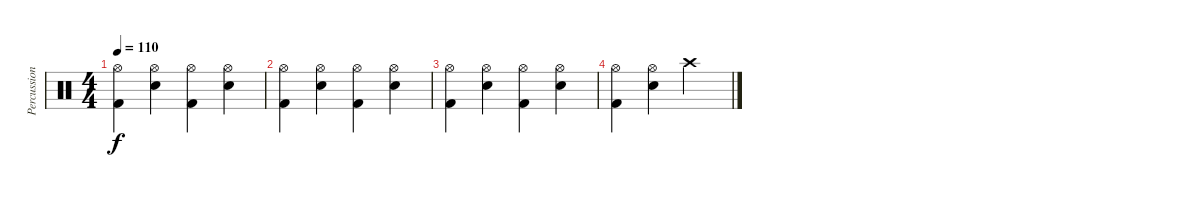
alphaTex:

\track ("Percussion" "Percussion") {instrument percussion}
\staff {score}
\articulation defaults
\ts (4 4)
\tempo 110
\clef neutral
\ks c
("Hi-Hat (open)" "Kick (hit) 2").4{dy f} ("Hi-Hat (open)" "Electric Snare (hit)").4 ("Hi-Hat (open)" "Kick (hit) 2").4 ("Hi-Hat (open)" "Electric Snare (hit)").4 |
("Hi-Hat (open)" "Kick (hit) 2").4 ("Hi-Hat (open)" "Electric Snare (hit)").4 ("Hi-Hat (open)" "Kick (hit) 2").4 ("Hi-Hat (open)" "Electric Snare (hit)").4 |
("Hi-Hat (open)" "Kick (hit) 2").4 ("Hi-Hat (open)" "Electric Snare (hit)").4 ("Hi-Hat (open)" "Kick (hit) 2").4 ("Hi-Hat (open)" "Electric Snare (hit)").4 |
("Hi-Hat (open)" "Kick (hit) 2").4 ("Hi-Hat (open)" "Electric Snare (hit)").4 "Crash high (hit)".2
